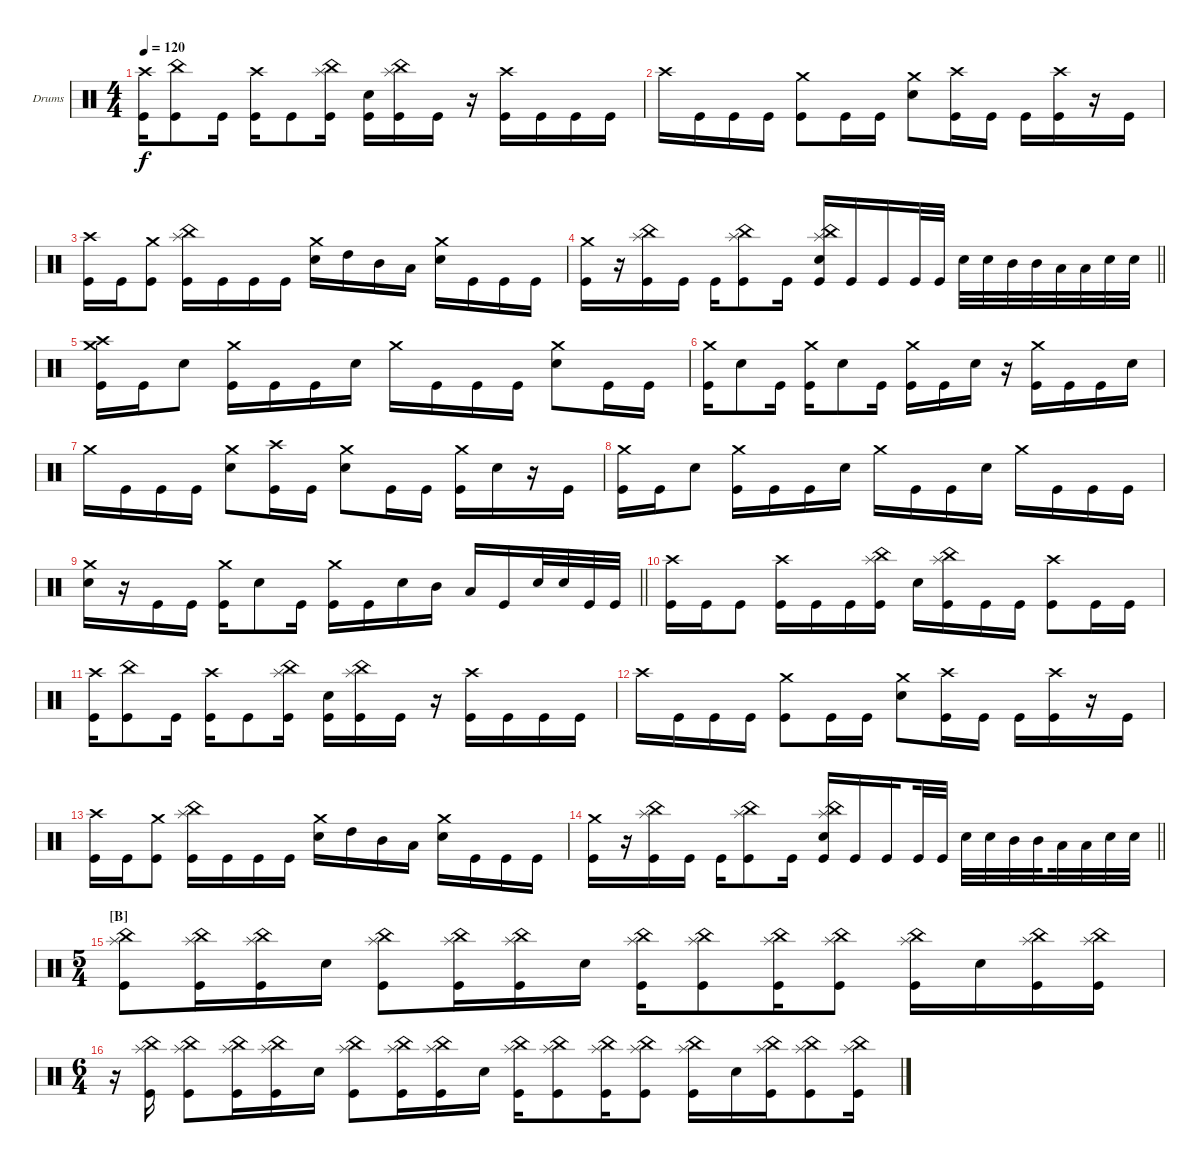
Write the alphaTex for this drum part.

\bracketExtendMode groupsimilarinstruments
\firstSystemTrackNameOrientation horizontal
\otherSystemsTrackNameOrientation horizontal
\track ("Drumkit" "Drums") {multiBarRest instrument percussion}
\staff {score}
\articulation defaults
\ts (4 4)
\tempo 120
\clef neutral
\ks c
("Crash high (hit)" "Kick (hit)").16{dy f} ("China (hit)" "Kick (hit)").8 "Kick (hit)".16 ("Crash high (hit)" "Kick (hit)").16 "Kick (hit)".8 ("China (hit)" "Splash (hit)" "Kick (hit)").16 ("Snare (hit) 2" "Kick (hit)").16 ("China (hit)" "Splash (hit)" "Kick (hit)").16 "Kick (hit)".16 r.16 ("Crash high (hit)" "Kick (hit)").16 "Kick (hit)".16 "Kick (hit)".16 "Kick (hit)".16 |
"Crash high (hit)".16 "Kick (hit)".16 "Kick (hit)".16 "Kick (hit)".16 ("Crash medium (hit)" "Kick (hit)").8 "Kick (hit)".16 "Kick (hit)".16 ("Crash medium (hit)" "Snare (hit) 2").8 ("Crash high (hit)" "Kick (hit)").16 "Kick (hit)".16 "Kick (hit)".16 ("Crash high (hit)" "Kick (hit)").16 r.16 "Kick (hit)".16 |
("Crash high (hit)" "Kick (hit)").16 "Kick (hit)".16 ("Crash medium (hit)" "Kick (hit)").8 ("China (hit)" "Splash (hit)" "Kick (hit)").16 "Kick (hit)".16 "Kick (hit)".16 "Kick (hit)".16 ("Crash medium (hit)" "Snare (hit) 2").16 "High Tom (hit)".16 "Mid Tom (hit)".16 "Low Tom (hit)".16 ("Crash medium (hit)" "Snare (hit) 2").16 "Kick (hit)".16 "Kick (hit)".16 "Kick (hit)".16 |
\barLineRight lightlight
("Crash medium (hit)" "Kick (hit)").16 r.16 ("Splash (hit)" "China (hit)" "Kick (hit)").16 "Kick (hit)".16 "Kick (hit)".16 ("Splash (hit)" "China (hit)" "Kick (hit)").8 "Kick (hit)".16 ("Splash (hit)" "China (hit)" "Snare (hit) 2" "Kick (hit)").16 "Kick (hit)".16 "Kick (hit)".16 "Kick (hit)".32 "Kick (hit)".32 "Snare (hit) 2".32 "Snare (hit) 2".32 "Mid Tom (hit)".32 "Mid Tom (hit)".32 "Low Tom (hit)".32 "Low Tom (hit)".32 "Snare (hit) 2".32 "Snare (hit) 2".32 |
("Crash high (hit)" "Crash medium (hit)" "Kick (hit)").16 "Kick (hit)".16 "Snare (hit) 2".8 ("Crash medium (hit)" "Kick (hit)").16 "Kick (hit)".16 "Kick (hit)".16 "Snare (hit) 2".16 "Crash medium (hit)".16 "Kick (hit)".16 "Kick (hit)".16 "Kick (hit)".16 ("Crash medium (hit)" "Snare (hit) 2").8 "Kick (hit)".16 "Kick (hit)".16 |
("Crash medium (hit)" "Kick (hit)").16 "Snare (hit) 2".8 "Kick (hit)".16 ("Crash medium (hit)" "Kick (hit)").16 "Snare (hit) 2".8 "Kick (hit)".16 ("Crash medium (hit)" "Kick (hit)").16 "Kick (hit)".16 "Snare (hit) 2".16 r.16 ("Crash medium (hit)" "Kick (hit)").16 "Kick (hit)".16 "Kick (hit)".16 "Snare (hit) 2".16 |
"Crash medium (hit)".16 "Kick (hit)".16 "Kick (hit)".16 "Kick (hit)".16 ("Crash medium (hit)" "Snare (hit) 2").8 ("Crash high (hit)" "Kick (hit)").16 "Kick (hit)".16 ("Crash medium (hit)" "Snare (hit) 2").8 "Kick (hit)".16 "Kick (hit)".16 ("Crash medium (hit)" "Kick (hit)").16 "Snare (hit) 2".16 r.16 "Kick (hit)".16 |
("Crash medium (hit)" "Kick (hit)").16 "Kick (hit)".16 "Snare (hit) 2".8 ("Crash medium (hit)" "Kick (hit)").16 "Kick (hit)".16 "Kick (hit)".16 "Snare (hit) 2".16 "Crash medium (hit)".16 "Kick (hit)".16 "Kick (hit)".16 "Snare (hit) 2".16 "Crash medium (hit)".16 "Kick (hit)".16 "Kick (hit)".16 "Kick (hit)".16 |
\barLineRight lightlight
("Crash medium (hit)" "Snare (hit) 2").16 r.16 "Kick (hit)".16 "Kick (hit)".16 ("Crash medium (hit)" "Kick (hit)").16 "Snare (hit) 2".8 "Kick (hit)".16 ("Crash medium (hit)" "Kick (hit)").16 "Kick (hit)".16 "Snare (hit) 2".16 "Mid Tom (hit)".16 "Low Tom (hit)".16 "Kick (hit)".16 "Snare (hit) 2".32 "Snare (hit) 2".32 "Kick (hit)".32 "Kick (hit)".32 |
("Crash high (hit)" "Kick (hit)").16 "Kick (hit)".16 "Kick (hit)".8 ("Crash high (hit)" "Kick (hit)").16 "Kick (hit)".16 "Kick (hit)".16 ("China (hit)" "Splash (hit)" "Kick (hit)").16 "Snare (hit) 2".16 ("China (hit)" "Splash (hit)" "Kick (hit)").16 "Kick (hit)".16 "Kick (hit)".16 ("Crash high (hit)" "Kick (hit)").8 "Kick (hit)".16 "Kick (hit)".16 |
("Crash high (hit)" "Kick (hit)").16 ("China (hit)" "Kick (hit)").8 "Kick (hit)".16 ("Crash high (hit)" "Kick (hit)").16 "Kick (hit)".8 ("China (hit)" "Splash (hit)" "Kick (hit)").16 ("Snare (hit) 2" "Kick (hit)").16 ("China (hit)" "Splash (hit)" "Kick (hit)").16 "Kick (hit)".16 r.16 ("Crash high (hit)" "Kick (hit)").16 "Kick (hit)".16 "Kick (hit)".16 "Kick (hit)".16 |
"Crash high (hit)".16 "Kick (hit)".16 "Kick (hit)".16 "Kick (hit)".16 ("Crash medium (hit)" "Kick (hit)").8 "Kick (hit)".16 "Kick (hit)".16 ("Crash medium (hit)" "Snare (hit) 2").8 ("Crash high (hit)" "Kick (hit)").16 "Kick (hit)".16 "Kick (hit)".16 ("Crash high (hit)" "Kick (hit)").16 r.16 "Kick (hit)".16 |
("Crash high (hit)" "Kick (hit)").16 "Kick (hit)".16 ("Crash medium (hit)" "Kick (hit)").8 ("China (hit)" "Splash (hit)" "Kick (hit)").16 "Kick (hit)".16 "Kick (hit)".16 "Kick (hit)".16 ("Crash medium (hit)" "Snare (hit) 2").16 "High Tom (hit)".16 "Mid Tom (hit)".16 "Low Tom (hit)".16 ("Crash medium (hit)" "Snare (hit) 2").16 "Kick (hit)".16 "Kick (hit)".16 "Kick (hit)".16 |
\barLineRight lightlight
("Crash medium (hit)" "Kick (hit)").16 r.16 ("Splash (hit)" "China (hit)" "Kick (hit)").16 "Kick (hit)".16 "Kick (hit)".16 ("Splash (hit)" "China (hit)" "Kick (hit)").8 "Kick (hit)".16 ("Splash (hit)" "China (hit)" "Snare (hit) 2" "Kick (hit)").16 "Kick (hit)".16 "Kick (hit)".16{beam splitsecondary} "Kick (hit)".32 "Kick (hit)".32 "Snare (hit) 2".32 "Snare (hit) 2".32 "Mid Tom (hit)".32 "Mid Tom (hit)".32{beam splitsecondary} "Low Tom (hit)".32 "Low Tom (hit)".32 "Snare (hit) 2".32 "Snare (hit) 2".32 |
\ts (5 4)
\beaming (8 2 2 2 4)
\section ("B" "")
("China (hit)" "Splash (hit)" "Kick (hit)").8{beam merge} ("China (hit)" "Splash (hit)" "Kick (hit)").16{beam merge} ("China (hit)" "Splash (hit)" "Kick (hit)").16{beam merge} "Snare (hit) 2".16{beam split} ("China (hit)" "Splash (hit)" "Kick (hit)").8{beam merge} ("China (hit)" "Splash (hit)" "Kick (hit)").16{beam merge} ("China (hit)" "Splash (hit)" "Kick (hit)").16{beam merge} "Snare (hit) 2".16{beam split} ("China (hit)" "Splash (hit)" "Kick (hit)").16{beam merge} ("China (hit)" "Splash (hit)" "Kick (hit)").8{beam merge} ("China (hit)" "Splash (hit)" "Kick (hit)").16{beam merge} ("China (hit)" "Splash (hit)" "Kick (hit)").8{beam split} ("China (hit)" "Splash (hit)" "Kick (hit)").16 "Snare (hit) 2".16 ("China (hit)" "Splash (hit)" "Kick (hit)").16 ("China (hit)" "Splash (hit)" "Kick (hit)").16 |
\ts (6 4)
\beaming (8 2 2 2 6)
r.16 ("China (hit)" "Splash (hit)" "Kick (hit)").16{beam split} ("China (hit)" "Splash (hit)" "Kick (hit)").8{beam merge} ("China (hit)" "Splash (hit)" "Kick (hit)").16{beam merge} ("China (hit)" "Splash (hit)" "Kick (hit)").16{beam merge} "Snare (hit) 2".16{beam split} ("China (hit)" "Splash (hit)" "Kick (hit)").8{beam merge} ("China (hit)" "Splash (hit)" "Kick (hit)").16{beam merge} ("China (hit)" "Splash (hit)" "Kick (hit)").16{beam merge} "Snare (hit) 2".16 ("China (hit)" "Splash (hit)" "Kick (hit)").16 ("China (hit)" "Splash (hit)" "Kick (hit)").8 ("China (hit)" "Splash (hit)" "Kick (hit)").16 ("China (hit)" "Splash (hit)" "Kick (hit)").8{beam split} ("China (hit)" "Splash (hit)" "Kick (hit)").16 "Snare (hit) 2".16 ("China (hit)" "Splash (hit)" "Kick (hit)").16 ("China (hit)" "Splash (hit)" "Kick (hit)").8 ("China (hit)" "Splash (hit)" "Kick (hit)").16
